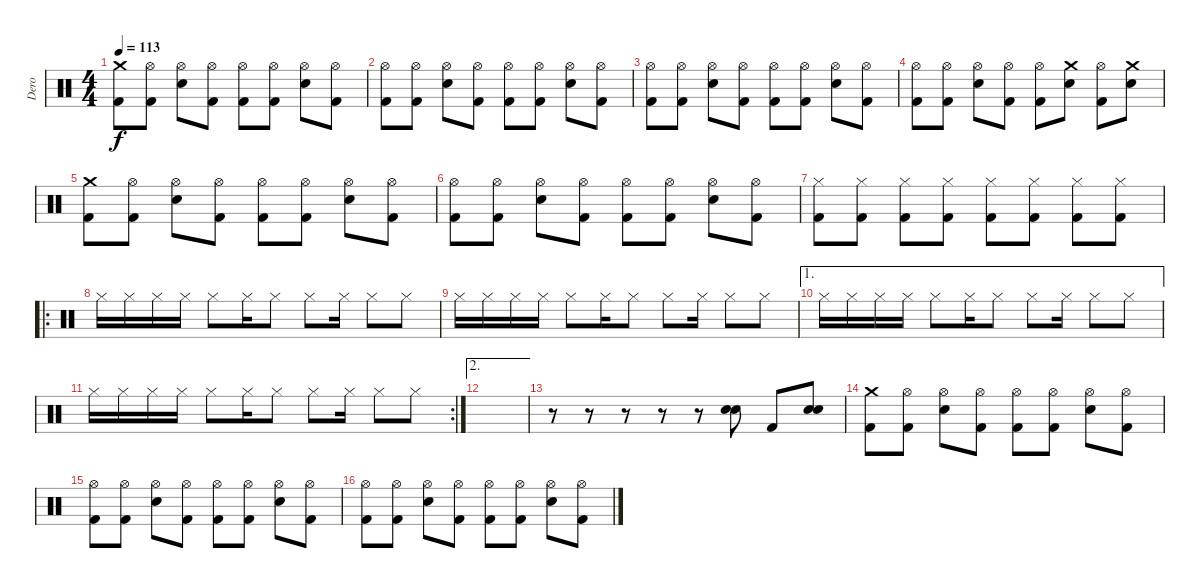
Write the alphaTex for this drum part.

\track ("Dero" "Dero") {instrument percussion}
\staff {score}
\articulation defaults
\ts (4 4)
\tempo 113
\clef neutral
\ks c
("Crash medium (hit)" "Kick (hit) 2").8{dy f} ("Hi-Hat (open)" "Kick (hit) 2").8 ("Hi-Hat (open)" "Electric Snare (hit)").8 ("Hi-Hat (open)" "Kick (hit) 2").8 ("Hi-Hat (open)" "Kick (hit) 2").8 ("Hi-Hat (open)" "Kick (hit) 2").8 ("Hi-Hat (open)" "Electric Snare (hit)").8 ("Hi-Hat (open)" "Kick (hit) 2").8 |
("Hi-Hat (open)" "Kick (hit) 2").8 ("Hi-Hat (open)" "Kick (hit) 2").8 ("Hi-Hat (open)" "Electric Snare (hit)").8 ("Hi-Hat (open)" "Kick (hit) 2").8 ("Hi-Hat (open)" "Kick (hit) 2").8 ("Hi-Hat (open)" "Kick (hit) 2").8 ("Hi-Hat (open)" "Electric Snare (hit)").8 ("Hi-Hat (open)" "Kick (hit) 2").8 |
("Hi-Hat (open)" "Kick (hit) 2").8 ("Hi-Hat (open)" "Kick (hit) 2").8 ("Hi-Hat (open)" "Electric Snare (hit)").8 ("Hi-Hat (open)" "Kick (hit) 2").8 ("Hi-Hat (open)" "Kick (hit) 2").8 ("Hi-Hat (open)" "Kick (hit) 2").8 ("Hi-Hat (open)" "Electric Snare (hit)").8 ("Hi-Hat (open)" "Kick (hit) 2").8 |
("Hi-Hat (open)" "Kick (hit) 2").8 ("Hi-Hat (open)" "Kick (hit) 2").8 ("Hi-Hat (open)" "Electric Snare (hit)").8 ("Hi-Hat (open)" "Kick (hit) 2").8 ("Hi-Hat (open)" "Kick (hit) 2").8 ("Crash medium (hit)" "Electric Snare (hit)").8 ("Hi-Hat (open)" "Kick (hit) 2").8 ("Crash medium (hit)" "Electric Snare (hit)").8 |
("Crash medium (hit)" "Kick (hit) 2").8 ("Hi-Hat (open)" "Kick (hit) 2").8 ("Hi-Hat (open)" "Electric Snare (hit)").8 ("Hi-Hat (open)" "Kick (hit) 2").8 ("Hi-Hat (open)" "Kick (hit) 2").8 ("Hi-Hat (open)" "Kick (hit) 2").8 ("Hi-Hat (open)" "Electric Snare (hit)").8 ("Hi-Hat (open)" "Kick (hit) 2").8 |
("Hi-Hat (open)" "Kick (hit) 2").8 ("Hi-Hat (open)" "Kick (hit) 2").8 ("Hi-Hat (open)" "Electric Snare (hit)").8 ("Hi-Hat (open)" "Kick (hit) 2").8 ("Hi-Hat (open)" "Kick (hit) 2").8 ("Hi-Hat (open)" "Kick (hit) 2").8 ("Hi-Hat (open)" "Electric Snare (hit)").8 ("Hi-Hat (open)" "Kick (hit) 2").8 |
("Hi-Hat (closed)" "Kick (hit) 2").8 ("Hi-Hat (closed)" "Kick (hit) 2").8 ("Hi-Hat (closed)" "Kick (hit) 2").8 ("Hi-Hat (closed)" "Kick (hit) 2").8 ("Hi-Hat (closed)" "Kick (hit) 2").8 ("Hi-Hat (closed)" "Kick (hit) 2").8 ("Hi-Hat (closed)" "Kick (hit) 2").8 ("Hi-Hat (closed)" "Kick (hit) 2").8 |
\ro "Hi-Hat (closed)".16 "Hi-Hat (closed)".16 "Hi-Hat (closed)".16 "Hi-Hat (closed)".16 "Hi-Hat (closed)".8 "Hi-Hat (closed)".16 "Hi-Hat (closed)".8 "Hi-Hat (closed)".8 "Hi-Hat (closed)".16 "Hi-Hat (closed)".8 "Hi-Hat (closed)".8
|
"Hi-Hat (closed)".16 "Hi-Hat (closed)".16 "Hi-Hat (closed)".16 "Hi-Hat (closed)".16 "Hi-Hat (closed)".8 "Hi-Hat (closed)".16 "Hi-Hat (closed)".8 "Hi-Hat (closed)".8 "Hi-Hat (closed)".16 "Hi-Hat (closed)".8 "Hi-Hat (closed)".8 |
\ae 1 "Hi-Hat (closed)".16 "Hi-Hat (closed)".16 "Hi-Hat (closed)".16 "Hi-Hat (closed)".16 "Hi-Hat (closed)".8 "Hi-Hat (closed)".16 "Hi-Hat (closed)".8 "Hi-Hat (closed)".8 "Hi-Hat (closed)".16 "Hi-Hat (closed)".8 "Hi-Hat (closed)".8
|
\rc 2 "Hi-Hat (closed)".16 "Hi-Hat (closed)".16 "Hi-Hat (closed)".16 "Hi-Hat (closed)".16 "Hi-Hat (closed)".8 "Hi-Hat (closed)".16 "Hi-Hat (closed)".8 "Hi-Hat (closed)".8 "Hi-Hat (closed)".16 "Hi-Hat (closed)".8 "Hi-Hat (closed)".8
|
\ae 2
|
r.8 r.8 r.8 r.8 r.8 ("Electric Snare (hit)" "Electric Snare (hit)").8 "Kick (hit) 2".8 ("Electric Snare (hit)" "Electric Snare (hit)").8 |
("Crash medium (hit)" "Kick (hit) 2").8 ("Hi-Hat (open)" "Kick (hit) 2").8 ("Hi-Hat (open)" "Electric Snare (hit)").8 ("Hi-Hat (open)" "Kick (hit) 2").8 ("Hi-Hat (open)" "Kick (hit) 2").8 ("Hi-Hat (open)" "Kick (hit) 2").8 ("Hi-Hat (open)" "Electric Snare (hit)").8 ("Hi-Hat (open)" "Kick (hit) 2").8 |
("Hi-Hat (open)" "Kick (hit) 2").8 ("Hi-Hat (open)" "Kick (hit) 2").8 ("Hi-Hat (open)" "Electric Snare (hit)").8 ("Hi-Hat (open)" "Kick (hit) 2").8 ("Hi-Hat (open)" "Kick (hit) 2").8 ("Hi-Hat (open)" "Kick (hit) 2").8 ("Hi-Hat (open)" "Electric Snare (hit)").8 ("Hi-Hat (open)" "Kick (hit) 2").8 |
("Hi-Hat (open)" "Kick (hit) 2").8 ("Hi-Hat (open)" "Kick (hit) 2").8 ("Hi-Hat (open)" "Electric Snare (hit)").8 ("Hi-Hat (open)" "Kick (hit) 2").8 ("Hi-Hat (open)" "Kick (hit) 2").8 ("Hi-Hat (open)" "Kick (hit) 2").8 ("Hi-Hat (open)" "Electric Snare (hit)").8 ("Hi-Hat (open)" "Kick (hit) 2").8
